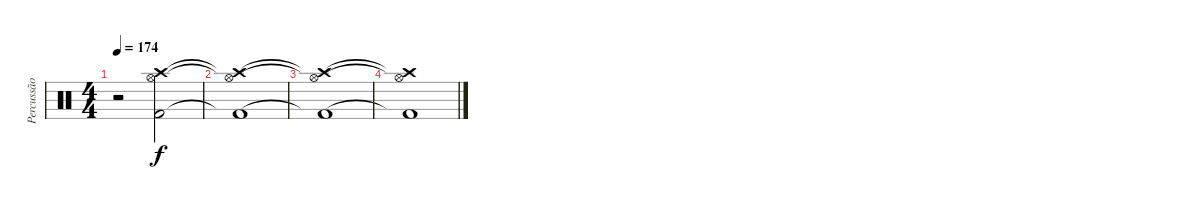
\track ("Percussão" "Percussão") {instrument percussion}
\staff {score}
\articulation defaults
\ts (4 4)
\tempo 174
\clef neutral
\ks c
r.2{dy f} ("Crash high (hit)" "Hi-Hat (open)" "Kick (hit) 2").2 |
("Crash high (hit)"{t} "Hi-Hat (open)"{t} "Kick (hit) 2"{t}).1 |
("Crash high (hit)"{t} "Hi-Hat (open)"{t} "Kick (hit) 2"{t}).1 |
("Crash high (hit)"{t} "Hi-Hat (open)"{t} "Kick (hit) 2"{t}).1
